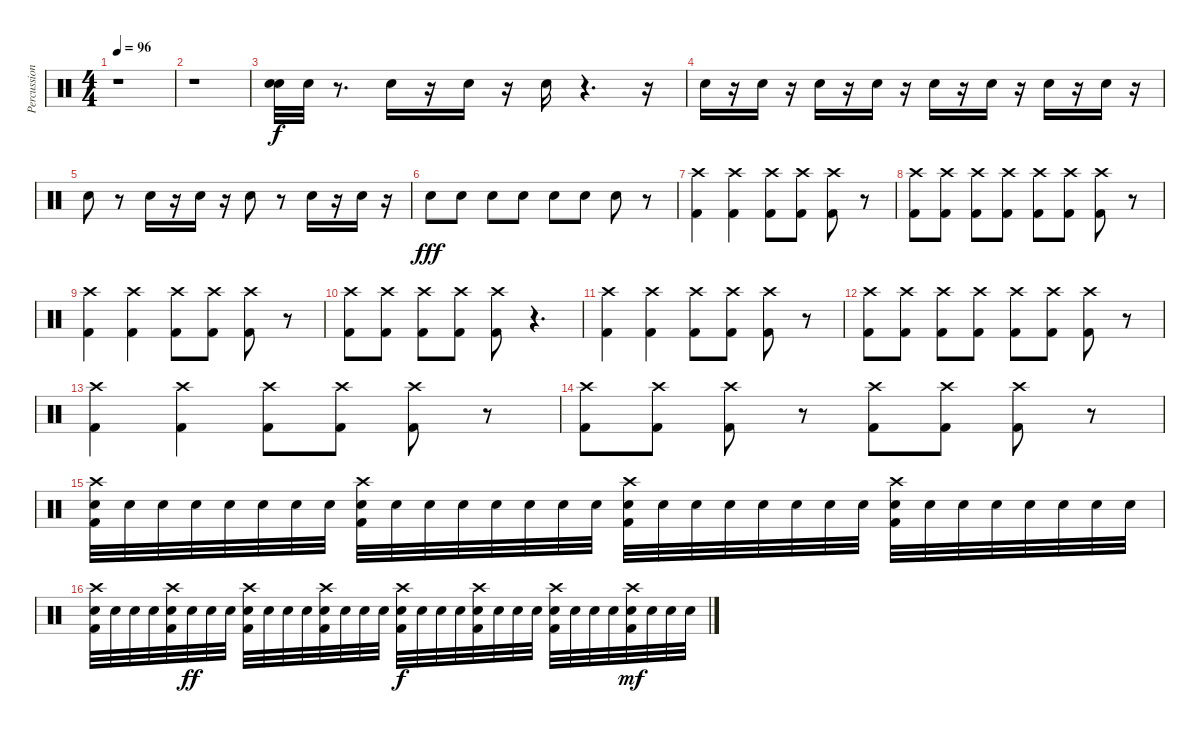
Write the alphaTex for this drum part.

\track ("Percussion" "Percussion") {instrument percussion}
\staff {score}
\articulation defaults
\ts (4 4)
\tempo 96
\clef neutral
\ks c
r.1{dy mp} |
r.1 |
("Snare (hit) 2" "Snare (hit) 2").32{dy f} "Snare (hit) 2".32 r.8{d} "Snare (hit) 2".16 r.16 "Snare (hit) 2".16 r.16 "Snare (hit) 2".16 r.4{d} r.16 |
"Snare (hit) 2".16 r.16 "Snare (hit) 2".16 r.16 "Snare (hit) 2".16 r.16 "Snare (hit) 2".16 r.16 "Snare (hit) 2".16 r.16 "Snare (hit) 2".16 r.16 "Snare (hit) 2".16 r.16 "Snare (hit) 2".16 r.16 |
"Snare (hit) 2".8 r.8 "Snare (hit) 2".16 r.16 "Snare (hit) 2".16 r.16 "Snare (hit) 2".8 r.8 "Snare (hit) 2".16 r.16 "Snare (hit) 2".16 r.16 |
"Snare (hit) 2".8{dy fff} "Snare (hit) 2".8 "Snare (hit) 2".8 "Snare (hit) 2".8 "Snare (hit) 2".8 "Snare (hit) 2".8 "Snare (hit) 2".8 r.8 |
("Kick (hit) 2" "Crash high (hit)").4 ("Kick (hit) 2" "Crash high (hit)").4 ("Crash high (hit)" "Kick (hit) 2").8 ("Kick (hit) 2" "Crash high (hit)").8 ("Crash high (hit)" "Kick (hit) 2").8 r.8 |
("Kick (hit) 2" "Crash high (hit)").8 ("Kick (hit) 2" "Crash high (hit)").8 ("Kick (hit) 2" "Crash high (hit)").8 ("Kick (hit) 2" "Crash high (hit)").8 ("Crash high (hit)" "Kick (hit) 2").8 ("Kick (hit) 2" "Crash high (hit)").8 ("Crash high (hit)" "Kick (hit) 2").8 r.8 |
("Crash high (hit)" "Kick (hit) 2").4 ("Crash high (hit)" "Kick (hit) 2").4 ("Crash high (hit)" "Kick (hit) 2").8 ("Kick (hit) 2" "Crash high (hit)").8 ("Crash high (hit)" "Kick (hit) 2").8 r.8 |
("Kick (hit) 2" "Crash high (hit)").8 ("Crash high (hit)" "Kick (hit) 2").8 ("Kick (hit) 2" "Crash high (hit)").8 ("Kick (hit) 2" "Crash high (hit)").8 ("Crash high (hit)" "Kick (hit) 2").8 r.4{d} |
("Kick (hit) 2" "Crash high (hit)").4 ("Kick (hit) 2" "Crash high (hit)").4 ("Crash high (hit)" "Kick (hit) 2").8 ("Kick (hit) 2" "Crash high (hit)").8 ("Kick (hit) 2" "Crash high (hit)").8 r.8 |
("Kick (hit) 2" "Crash high (hit)").8 ("Kick (hit) 2" "Crash high (hit)").8 ("Kick (hit) 2" "Crash high (hit)").8 ("Kick (hit) 2" "Crash high (hit)").8 ("Kick (hit) 2" "Crash high (hit)").8 ("Kick (hit) 2" "Crash high (hit)").8 ("Kick (hit) 2" "Crash high (hit)").8 r.8 |
("Crash high (hit)" "Kick (hit) 2").4 ("Kick (hit) 2" "Crash high (hit)").4 ("Crash high (hit)" "Kick (hit) 2").8 ("Kick (hit) 2" "Crash high (hit)").8 ("Kick (hit) 2" "Crash high (hit)").8 r.8 |
("Kick (hit) 2" "Crash high (hit)").8 ("Kick (hit) 2" "Crash high (hit)").8 ("Crash high (hit)" "Kick (hit) 2").8 r.8 ("Crash high (hit)" "Kick (hit) 2").8 ("Kick (hit) 2" "Crash high (hit)").8 ("Crash high (hit)" "Kick (hit) 2").8 r.8 |
("Snare (hit) 2" "Crash high (hit)" "Kick (hit) 2").32 "Snare (hit) 2".32 "Snare (hit) 2".32 "Snare (hit) 2".32 "Snare (hit) 2".32 "Snare (hit) 2".32 "Snare (hit) 2".32 "Snare (hit) 2".32 ("Snare (hit) 2" "Kick (hit) 2" "Crash high (hit)").32 "Snare (hit) 2".32 "Snare (hit) 2".32 "Snare (hit) 2".32 "Snare (hit) 2".32 "Snare (hit) 2".32 "Snare (hit) 2".32 "Snare (hit) 2".32 ("Snare (hit) 2" "Kick (hit) 2" "Crash high (hit)").32 "Snare (hit) 2".32 "Snare (hit) 2".32 "Snare (hit) 2".32 "Snare (hit) 2".32 "Snare (hit) 2".32 "Snare (hit) 2".32 "Snare (hit) 2".32 ("Snare (hit) 2" "Kick (hit) 2" "Crash high (hit)").32 "Snare (hit) 2".32 "Snare (hit) 2".32 "Snare (hit) 2".32 "Snare (hit) 2".32 "Snare (hit) 2".32 "Snare (hit) 2".32 "Snare (hit) 2".32 |
("Snare (hit) 2" "Kick (hit) 2" "Crash high (hit)").32 "Snare (hit) 2".32 "Snare (hit) 2".32 "Snare (hit) 2".32 ("Snare (hit) 2" "Kick (hit) 2" "Crash high (hit)").32 "Snare (hit) 2".32{dy ff} "Snare (hit) 2".32 "Snare (hit) 2".32 ("Snare (hit) 2" "Crash high (hit)" "Kick (hit) 2").32 "Snare (hit) 2".32 "Snare (hit) 2".32 "Snare (hit) 2".32 ("Snare (hit) 2" "Kick (hit) 2" "Crash high (hit)").32 "Snare (hit) 2".32 "Snare (hit) 2".32 "Snare (hit) 2".32 ("Snare (hit) 2" "Crash high (hit)" "Kick (hit) 2").32{dy f} "Snare (hit) 2".32 "Snare (hit) 2".32 "Snare (hit) 2".32 ("Snare (hit) 2" "Kick (hit) 2" "Crash high (hit)").32 "Snare (hit) 2".32 "Snare (hit) 2".32 "Snare (hit) 2".32 ("Snare (hit) 2" "Crash high (hit)" "Kick (hit) 2").32 "Snare (hit) 2".32 "Snare (hit) 2".32 "Snare (hit) 2".32 ("Snare (hit) 2" "Kick (hit) 2" "Crash high (hit)").32{dy mf} "Snare (hit) 2".32 "Snare (hit) 2".32 "Snare (hit) 2".32
